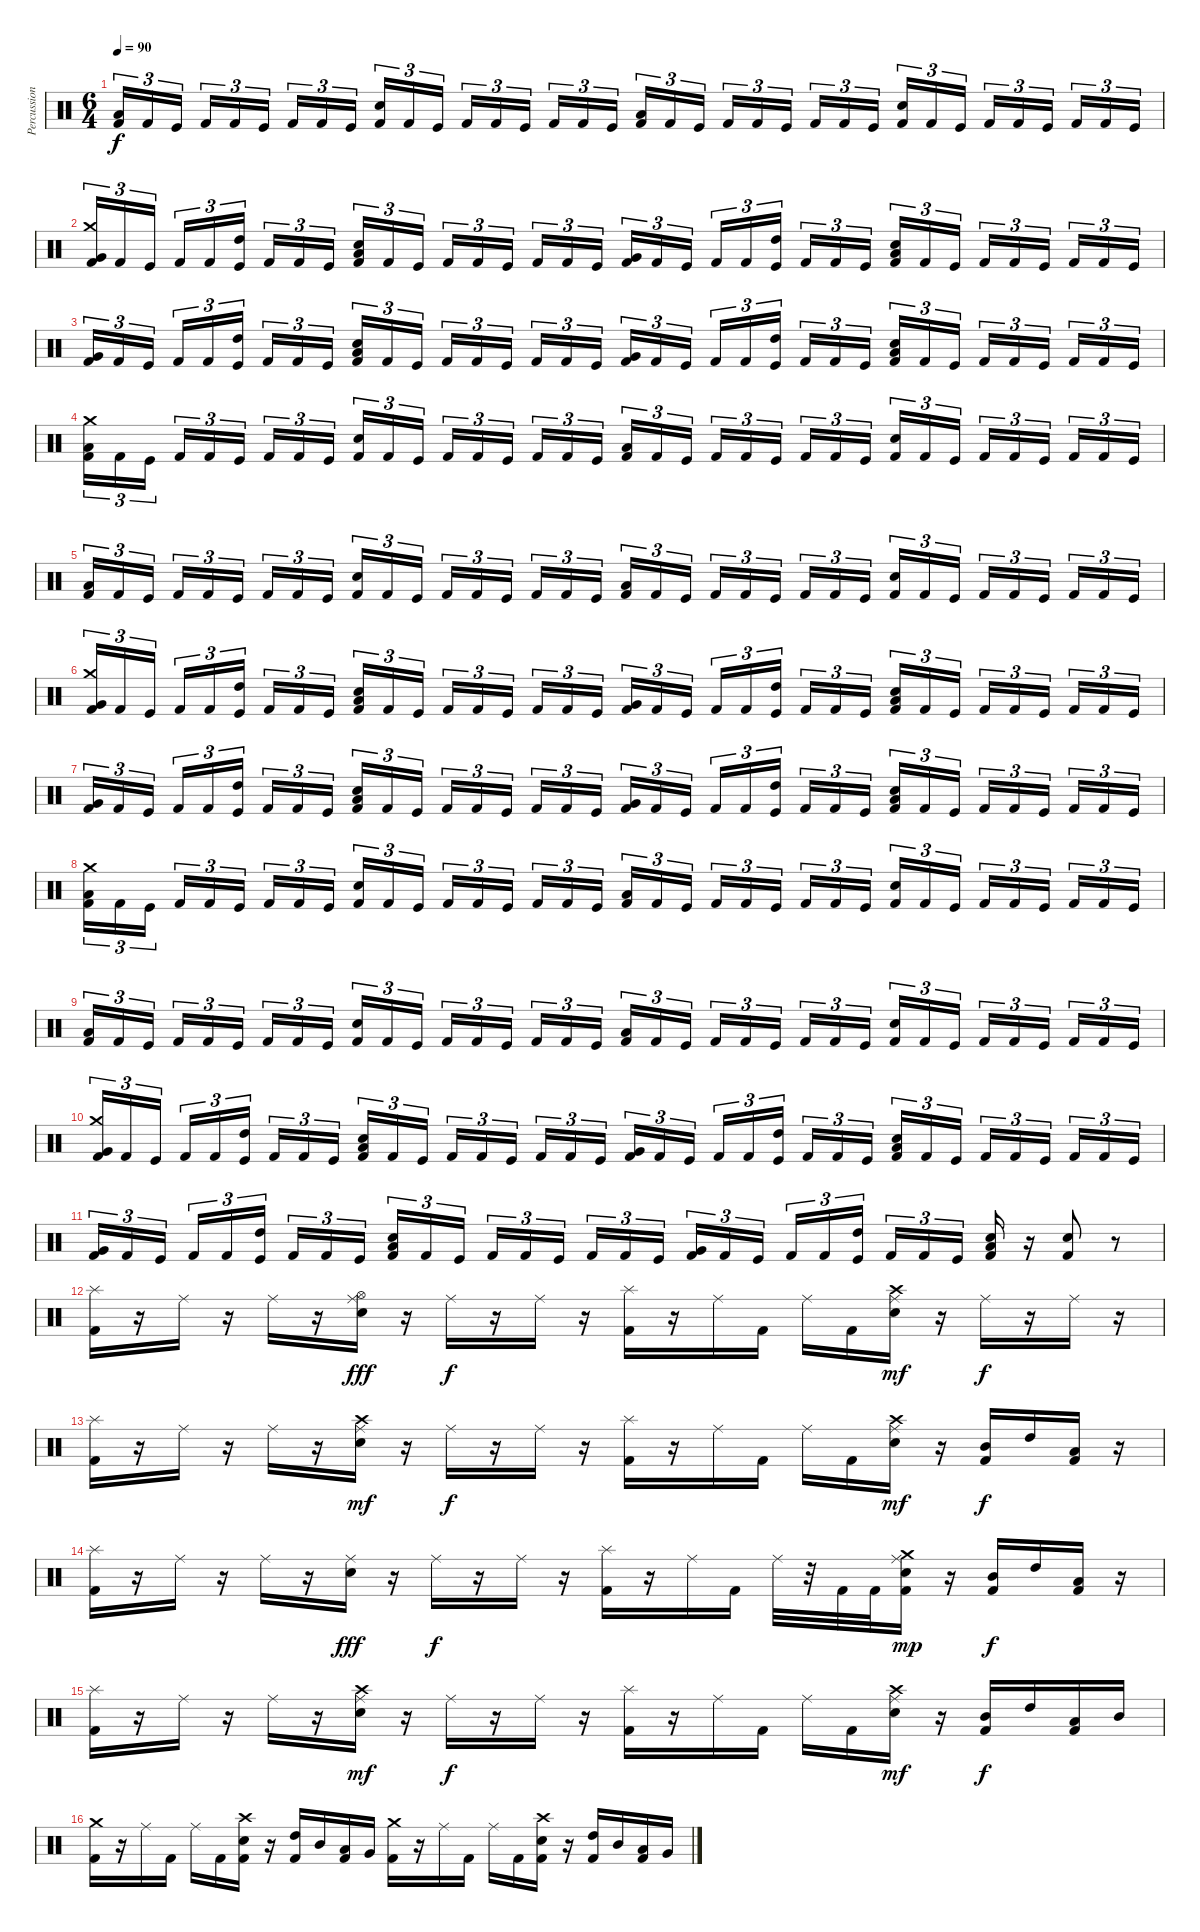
\track ("Percussion" "Percussion") {instrument percussion}
\staff {score}
\articulation defaults
\ts (6 4)
\tempo 90
\clef neutral
\ks c
("Low Floor Tom (hit)" "Kick (hit) 2").16{tu (3 2) dy f} "Kick (hit) 2".16{tu (3 2)} "Kick (hit)".16{tu (3 2)} "Kick (hit) 2".16{tu (3 2)} "Kick (hit) 2".16{tu (3 2)} "Kick (hit)".16{tu (3 2)} "Kick (hit) 2".16{tu (3 2)} "Kick (hit) 2".16{tu (3 2)} "Kick (hit)".16{tu (3 2)} ("Electric Snare (hit)" "Kick (hit) 2").16{tu (3 2)} "Kick (hit) 2".16{tu (3 2)} "Kick (hit)".16{tu (3 2)} "Kick (hit) 2".16{tu (3 2)} "Kick (hit) 2".16{tu (3 2)} "Kick (hit)".16{tu (3 2)} "Kick (hit) 2".16{tu (3 2)} "Kick (hit) 2".16{tu (3 2)} "Kick (hit)".16{tu (3 2)} ("Low Floor Tom (hit)" "Kick (hit) 2").16{tu (3 2)} "Kick (hit) 2".16{tu (3 2)} "Kick (hit)".16{tu (3 2)} "Kick (hit) 2".16{tu (3 2)} "Kick (hit) 2".16{tu (3 2)} "Kick (hit)".16{tu (3 2)} "Kick (hit) 2".16{tu (3 2)} "Kick (hit) 2".16{tu (3 2)} "Kick (hit)".16{tu (3 2)} ("Electric Snare (hit)" "Kick (hit) 2").16{tu (3 2)} "Kick (hit) 2".16{tu (3 2)} "Kick (hit)".16{tu (3 2)} "Kick (hit) 2".16{tu (3 2)} "Kick (hit) 2".16{tu (3 2)} "Kick (hit)".16{tu (3 2)} "Kick (hit) 2".16{tu (3 2)} "Kick (hit) 2".16{tu (3 2)} "Kick (hit)".16{tu (3 2)} |
("Crash medium (hit)" "Very Low Tom (hit)" "Kick (hit) 2").16{tu (3 2)} "Kick (hit) 2".16{tu (3 2)} "Kick (hit)".16{tu (3 2)} "Kick (hit) 2".16{tu (3 2)} "Kick (hit) 2".16{tu (3 2)} ("High Tom (hit)" "Kick (hit)").16{tu (3 2)} "Kick (hit) 2".16{tu (3 2)} "Kick (hit) 2".16{tu (3 2)} "Kick (hit)".16{tu (3 2)} ("Low Tom (hit)" "Electric Snare (hit)" "Kick (hit) 2").16{tu (3 2)} "Kick (hit) 2".16{tu (3 2)} "Kick (hit)".16{tu (3 2)} "Kick (hit) 2".16{tu (3 2)} "Kick (hit) 2".16{tu (3 2)} "Kick (hit)".16{tu (3 2)} "Kick (hit) 2".16{tu (3 2)} "Kick (hit) 2".16{tu (3 2)} "Kick (hit)".16{tu (3 2)} ("Very Low Tom (hit)" "Kick (hit) 2").16{tu (3 2)} "Kick (hit) 2".16{tu (3 2)} "Kick (hit)".16{tu (3 2)} "Kick (hit) 2".16{tu (3 2)} "Kick (hit) 2".16{tu (3 2)} ("High Tom (hit)" "Kick (hit)").16{tu (3 2)} "Kick (hit) 2".16{tu (3 2)} "Kick (hit) 2".16{tu (3 2)} "Kick (hit)".16{tu (3 2)} ("Low Tom (hit)" "Electric Snare (hit)" "Kick (hit) 2").16{tu (3 2)} "Kick (hit) 2".16{tu (3 2)} "Kick (hit)".16{tu (3 2)} "Kick (hit) 2".16{tu (3 2)} "Kick (hit) 2".16{tu (3 2)} "Kick (hit)".16{tu (3 2)} "Kick (hit) 2".16{tu (3 2)} "Kick (hit) 2".16{tu (3 2)} "Kick (hit)".16{tu (3 2)} |
("Very Low Tom (hit)" "Kick (hit) 2").16{tu (3 2)} "Kick (hit) 2".16{tu (3 2)} "Kick (hit)".16{tu (3 2)} "Kick (hit) 2".16{tu (3 2)} "Kick (hit) 2".16{tu (3 2)} ("High Tom (hit)" "Kick (hit)").16{tu (3 2)} "Kick (hit) 2".16{tu (3 2)} "Kick (hit) 2".16{tu (3 2)} "Kick (hit)".16{tu (3 2)} ("Low Tom (hit)" "Electric Snare (hit)" "Kick (hit) 2").16{tu (3 2)} "Kick (hit) 2".16{tu (3 2)} "Kick (hit)".16{tu (3 2)} "Kick (hit) 2".16{tu (3 2)} "Kick (hit) 2".16{tu (3 2)} "Kick (hit)".16{tu (3 2)} "Kick (hit) 2".16{tu (3 2)} "Kick (hit) 2".16{tu (3 2)} "Kick (hit)".16{tu (3 2)} ("Very Low Tom (hit)" "Kick (hit) 2").16{tu (3 2)} "Kick (hit) 2".16{tu (3 2)} "Kick (hit)".16{tu (3 2)} "Kick (hit) 2".16{tu (3 2)} "Kick (hit) 2".16{tu (3 2)} ("High Tom (hit)" "Kick (hit)").16{tu (3 2)} "Kick (hit) 2".16{tu (3 2)} "Kick (hit) 2".16{tu (3 2)} "Kick (hit)".16{tu (3 2)} ("Low Tom (hit)" "Electric Snare (hit)" "Kick (hit) 2").16{tu (3 2)} "Kick (hit) 2".16{tu (3 2)} "Kick (hit)".16{tu (3 2)} "Kick (hit) 2".16{tu (3 2)} "Kick (hit) 2".16{tu (3 2)} "Kick (hit)".16{tu (3 2)} "Kick (hit) 2".16{tu (3 2)} "Kick (hit) 2".16{tu (3 2)} "Kick (hit)".16{tu (3 2)} |
("Crash medium (hit)" "Low Floor Tom (hit)" "Kick (hit) 2").16{tu (3 2)} "Kick (hit) 2".16{tu (3 2)} "Kick (hit)".16{tu (3 2)} "Kick (hit) 2".16{tu (3 2)} "Kick (hit) 2".16{tu (3 2)} "Kick (hit)".16{tu (3 2)} "Kick (hit) 2".16{tu (3 2)} "Kick (hit) 2".16{tu (3 2)} "Kick (hit)".16{tu (3 2)} ("Electric Snare (hit)" "Kick (hit) 2").16{tu (3 2)} "Kick (hit) 2".16{tu (3 2)} "Kick (hit)".16{tu (3 2)} "Kick (hit) 2".16{tu (3 2)} "Kick (hit) 2".16{tu (3 2)} "Kick (hit)".16{tu (3 2)} "Kick (hit) 2".16{tu (3 2)} "Kick (hit) 2".16{tu (3 2)} "Kick (hit)".16{tu (3 2)} ("Low Floor Tom (hit)" "Kick (hit) 2").16{tu (3 2)} "Kick (hit) 2".16{tu (3 2)} "Kick (hit)".16{tu (3 2)} "Kick (hit) 2".16{tu (3 2)} "Kick (hit) 2".16{tu (3 2)} "Kick (hit)".16{tu (3 2)} "Kick (hit) 2".16{tu (3 2)} "Kick (hit) 2".16{tu (3 2)} "Kick (hit)".16{tu (3 2)} ("Electric Snare (hit)" "Kick (hit) 2").16{tu (3 2)} "Kick (hit) 2".16{tu (3 2)} "Kick (hit)".16{tu (3 2)} "Kick (hit) 2".16{tu (3 2)} "Kick (hit) 2".16{tu (3 2)} "Kick (hit)".16{tu (3 2)} "Kick (hit) 2".16{tu (3 2)} "Kick (hit) 2".16{tu (3 2)} "Kick (hit)".16{tu (3 2)} |
("Low Floor Tom (hit)" "Kick (hit) 2").16{tu (3 2)} "Kick (hit) 2".16{tu (3 2)} "Kick (hit)".16{tu (3 2)} "Kick (hit) 2".16{tu (3 2)} "Kick (hit) 2".16{tu (3 2)} "Kick (hit)".16{tu (3 2)} "Kick (hit) 2".16{tu (3 2)} "Kick (hit) 2".16{tu (3 2)} "Kick (hit)".16{tu (3 2)} ("Electric Snare (hit)" "Kick (hit) 2").16{tu (3 2)} "Kick (hit) 2".16{tu (3 2)} "Kick (hit)".16{tu (3 2)} "Kick (hit) 2".16{tu (3 2)} "Kick (hit) 2".16{tu (3 2)} "Kick (hit)".16{tu (3 2)} "Kick (hit) 2".16{tu (3 2)} "Kick (hit) 2".16{tu (3 2)} "Kick (hit)".16{tu (3 2)} ("Low Floor Tom (hit)" "Kick (hit) 2").16{tu (3 2)} "Kick (hit) 2".16{tu (3 2)} "Kick (hit)".16{tu (3 2)} "Kick (hit) 2".16{tu (3 2)} "Kick (hit) 2".16{tu (3 2)} "Kick (hit)".16{tu (3 2)} "Kick (hit) 2".16{tu (3 2)} "Kick (hit) 2".16{tu (3 2)} "Kick (hit)".16{tu (3 2)} ("Electric Snare (hit)" "Kick (hit) 2").16{tu (3 2)} "Kick (hit) 2".16{tu (3 2)} "Kick (hit)".16{tu (3 2)} "Kick (hit) 2".16{tu (3 2)} "Kick (hit) 2".16{tu (3 2)} "Kick (hit)".16{tu (3 2)} "Kick (hit) 2".16{tu (3 2)} "Kick (hit) 2".16{tu (3 2)} "Kick (hit)".16{tu (3 2)} |
("Crash medium (hit)" "Very Low Tom (hit)" "Kick (hit) 2").16{tu (3 2)} "Kick (hit) 2".16{tu (3 2)} "Kick (hit)".16{tu (3 2)} "Kick (hit) 2".16{tu (3 2)} "Kick (hit) 2".16{tu (3 2)} ("High Tom (hit)" "Kick (hit)").16{tu (3 2)} "Kick (hit) 2".16{tu (3 2)} "Kick (hit) 2".16{tu (3 2)} "Kick (hit)".16{tu (3 2)} ("Low Tom (hit)" "Electric Snare (hit)" "Kick (hit) 2").16{tu (3 2)} "Kick (hit) 2".16{tu (3 2)} "Kick (hit)".16{tu (3 2)} "Kick (hit) 2".16{tu (3 2)} "Kick (hit) 2".16{tu (3 2)} "Kick (hit)".16{tu (3 2)} "Kick (hit) 2".16{tu (3 2)} "Kick (hit) 2".16{tu (3 2)} "Kick (hit)".16{tu (3 2)} ("Very Low Tom (hit)" "Kick (hit) 2").16{tu (3 2)} "Kick (hit) 2".16{tu (3 2)} "Kick (hit)".16{tu (3 2)} "Kick (hit) 2".16{tu (3 2)} "Kick (hit) 2".16{tu (3 2)} ("High Tom (hit)" "Kick (hit)").16{tu (3 2)} "Kick (hit) 2".16{tu (3 2)} "Kick (hit) 2".16{tu (3 2)} "Kick (hit)".16{tu (3 2)} ("Low Tom (hit)" "Electric Snare (hit)" "Kick (hit) 2").16{tu (3 2)} "Kick (hit) 2".16{tu (3 2)} "Kick (hit)".16{tu (3 2)} "Kick (hit) 2".16{tu (3 2)} "Kick (hit) 2".16{tu (3 2)} "Kick (hit)".16{tu (3 2)} "Kick (hit) 2".16{tu (3 2)} "Kick (hit) 2".16{tu (3 2)} "Kick (hit)".16{tu (3 2)} |
("Very Low Tom (hit)" "Kick (hit) 2").16{tu (3 2)} "Kick (hit) 2".16{tu (3 2)} "Kick (hit)".16{tu (3 2)} "Kick (hit) 2".16{tu (3 2)} "Kick (hit) 2".16{tu (3 2)} ("High Tom (hit)" "Kick (hit)").16{tu (3 2)} "Kick (hit) 2".16{tu (3 2)} "Kick (hit) 2".16{tu (3 2)} "Kick (hit)".16{tu (3 2)} ("Low Tom (hit)" "Electric Snare (hit)" "Kick (hit) 2").16{tu (3 2)} "Kick (hit) 2".16{tu (3 2)} "Kick (hit)".16{tu (3 2)} "Kick (hit) 2".16{tu (3 2)} "Kick (hit) 2".16{tu (3 2)} "Kick (hit)".16{tu (3 2)} "Kick (hit) 2".16{tu (3 2)} "Kick (hit) 2".16{tu (3 2)} "Kick (hit)".16{tu (3 2)} ("Very Low Tom (hit)" "Kick (hit) 2").16{tu (3 2)} "Kick (hit) 2".16{tu (3 2)} "Kick (hit)".16{tu (3 2)} "Kick (hit) 2".16{tu (3 2)} "Kick (hit) 2".16{tu (3 2)} ("High Tom (hit)" "Kick (hit)").16{tu (3 2)} "Kick (hit) 2".16{tu (3 2)} "Kick (hit) 2".16{tu (3 2)} "Kick (hit)".16{tu (3 2)} ("Low Tom (hit)" "Electric Snare (hit)" "Kick (hit) 2").16{tu (3 2)} "Kick (hit) 2".16{tu (3 2)} "Kick (hit)".16{tu (3 2)} "Kick (hit) 2".16{tu (3 2)} "Kick (hit) 2".16{tu (3 2)} "Kick (hit)".16{tu (3 2)} "Kick (hit) 2".16{tu (3 2)} "Kick (hit) 2".16{tu (3 2)} "Kick (hit)".16{tu (3 2)} |
("Crash medium (hit)" "Low Floor Tom (hit)" "Kick (hit) 2").16{tu (3 2)} "Kick (hit) 2".16{tu (3 2)} "Kick (hit)".16{tu (3 2)} "Kick (hit) 2".16{tu (3 2)} "Kick (hit) 2".16{tu (3 2)} "Kick (hit)".16{tu (3 2)} "Kick (hit) 2".16{tu (3 2)} "Kick (hit) 2".16{tu (3 2)} "Kick (hit)".16{tu (3 2)} ("Electric Snare (hit)" "Kick (hit) 2").16{tu (3 2)} "Kick (hit) 2".16{tu (3 2)} "Kick (hit)".16{tu (3 2)} "Kick (hit) 2".16{tu (3 2)} "Kick (hit) 2".16{tu (3 2)} "Kick (hit)".16{tu (3 2)} "Kick (hit) 2".16{tu (3 2)} "Kick (hit) 2".16{tu (3 2)} "Kick (hit)".16{tu (3 2)} ("Low Floor Tom (hit)" "Kick (hit) 2").16{tu (3 2)} "Kick (hit) 2".16{tu (3 2)} "Kick (hit)".16{tu (3 2)} "Kick (hit) 2".16{tu (3 2)} "Kick (hit) 2".16{tu (3 2)} "Kick (hit)".16{tu (3 2)} "Kick (hit) 2".16{tu (3 2)} "Kick (hit) 2".16{tu (3 2)} "Kick (hit)".16{tu (3 2)} ("Electric Snare (hit)" "Kick (hit) 2").16{tu (3 2)} "Kick (hit) 2".16{tu (3 2)} "Kick (hit)".16{tu (3 2)} "Kick (hit) 2".16{tu (3 2)} "Kick (hit) 2".16{tu (3 2)} "Kick (hit)".16{tu (3 2)} "Kick (hit) 2".16{tu (3 2)} "Kick (hit) 2".16{tu (3 2)} "Kick (hit)".16{tu (3 2)} |
("Low Floor Tom (hit)" "Kick (hit) 2").16{tu (3 2)} "Kick (hit) 2".16{tu (3 2)} "Kick (hit)".16{tu (3 2)} "Kick (hit) 2".16{tu (3 2)} "Kick (hit) 2".16{tu (3 2)} "Kick (hit)".16{tu (3 2)} "Kick (hit) 2".16{tu (3 2)} "Kick (hit) 2".16{tu (3 2)} "Kick (hit)".16{tu (3 2)} ("Electric Snare (hit)" "Kick (hit) 2").16{tu (3 2)} "Kick (hit) 2".16{tu (3 2)} "Kick (hit)".16{tu (3 2)} "Kick (hit) 2".16{tu (3 2)} "Kick (hit) 2".16{tu (3 2)} "Kick (hit)".16{tu (3 2)} "Kick (hit) 2".16{tu (3 2)} "Kick (hit) 2".16{tu (3 2)} "Kick (hit)".16{tu (3 2)} ("Low Floor Tom (hit)" "Kick (hit) 2").16{tu (3 2)} "Kick (hit) 2".16{tu (3 2)} "Kick (hit)".16{tu (3 2)} "Kick (hit) 2".16{tu (3 2)} "Kick (hit) 2".16{tu (3 2)} "Kick (hit)".16{tu (3 2)} "Kick (hit) 2".16{tu (3 2)} "Kick (hit) 2".16{tu (3 2)} "Kick (hit)".16{tu (3 2)} ("Electric Snare (hit)" "Kick (hit) 2").16{tu (3 2)} "Kick (hit) 2".16{tu (3 2)} "Kick (hit)".16{tu (3 2)} "Kick (hit) 2".16{tu (3 2)} "Kick (hit) 2".16{tu (3 2)} "Kick (hit)".16{tu (3 2)} "Kick (hit) 2".16{tu (3 2)} "Kick (hit) 2".16{tu (3 2)} "Kick (hit)".16{tu (3 2)} |
("Crash medium (hit)" "Very Low Tom (hit)" "Kick (hit) 2").16{tu (3 2)} "Kick (hit) 2".16{tu (3 2)} "Kick (hit)".16{tu (3 2)} "Kick (hit) 2".16{tu (3 2)} "Kick (hit) 2".16{tu (3 2)} ("High Tom (hit)" "Kick (hit)").16{tu (3 2)} "Kick (hit) 2".16{tu (3 2)} "Kick (hit) 2".16{tu (3 2)} "Kick (hit)".16{tu (3 2)} ("Low Tom (hit)" "Electric Snare (hit)" "Kick (hit) 2").16{tu (3 2)} "Kick (hit) 2".16{tu (3 2)} "Kick (hit)".16{tu (3 2)} "Kick (hit) 2".16{tu (3 2)} "Kick (hit) 2".16{tu (3 2)} "Kick (hit)".16{tu (3 2)} "Kick (hit) 2".16{tu (3 2)} "Kick (hit) 2".16{tu (3 2)} "Kick (hit)".16{tu (3 2)} ("Very Low Tom (hit)" "Kick (hit) 2").16{tu (3 2)} "Kick (hit) 2".16{tu (3 2)} "Kick (hit)".16{tu (3 2)} "Kick (hit) 2".16{tu (3 2)} "Kick (hit) 2".16{tu (3 2)} ("High Tom (hit)" "Kick (hit)").16{tu (3 2)} "Kick (hit) 2".16{tu (3 2)} "Kick (hit) 2".16{tu (3 2)} "Kick (hit)".16{tu (3 2)} ("Low Tom (hit)" "Electric Snare (hit)" "Kick (hit) 2").16{tu (3 2)} "Kick (hit) 2".16{tu (3 2)} "Kick (hit)".16{tu (3 2)} "Kick (hit) 2".16{tu (3 2)} "Kick (hit) 2".16{tu (3 2)} "Kick (hit)".16{tu (3 2)} "Kick (hit) 2".16{tu (3 2)} "Kick (hit) 2".16{tu (3 2)} "Kick (hit)".16{tu (3 2)} |
("Very Low Tom (hit)" "Kick (hit) 2").16{tu (3 2)} "Kick (hit) 2".16{tu (3 2)} "Kick (hit)".16{tu (3 2)} "Kick (hit) 2".16{tu (3 2)} "Kick (hit) 2".16{tu (3 2)} ("High Tom (hit)" "Kick (hit)").16{tu (3 2)} "Kick (hit) 2".16{tu (3 2)} "Kick (hit) 2".16{tu (3 2)} "Kick (hit)".16{tu (3 2)} ("Low Tom (hit)" "Electric Snare (hit)" "Kick (hit) 2").16{tu (3 2)} "Kick (hit) 2".16{tu (3 2)} "Kick (hit)".16{tu (3 2)} "Kick (hit) 2".16{tu (3 2)} "Kick (hit) 2".16{tu (3 2)} "Kick (hit)".16{tu (3 2)} "Kick (hit) 2".16{tu (3 2)} "Kick (hit) 2".16{tu (3 2)} "Kick (hit)".16{tu (3 2)} ("Very Low Tom (hit)" "Kick (hit) 2").16{tu (3 2)} "Kick (hit) 2".16{tu (3 2)} "Kick (hit)".16{tu (3 2)} "Kick (hit) 2".16{tu (3 2)} "Kick (hit) 2".16{tu (3 2)} ("High Tom (hit)" "Kick (hit)").16{tu (3 2)} "Kick (hit) 2".16{tu (3 2)} "Kick (hit) 2".16{tu (3 2)} "Kick (hit)".16{tu (3 2)} ("Low Tom (hit)" "Electric Snare (hit)" "Kick (hit) 2").16 r.16 ("Electric Snare (hit)" "Kick (hit) 2").8 r.8 |
("Splash (hit)" "Kick (hit) 2").16 r.16 "Ride (middle)".16 r.16 "Ride (middle)".16 r.16 ("Ride (middle)" "Hi-Hat (open)" "Electric Snare (hit)").16{dy fff} r.16 "Ride (middle)".16{dy f} r.16 "Ride (middle)".16 r.16 ("Splash (hit)" "Kick (hit) 2").16 r.16 "Ride (middle)".16 "Kick (hit) 2".16 "Ride (middle)".16 "Kick (hit) 2".16 ("Ride (middle)" "Crash high (hit)" "Electric Snare (hit)").16{dy mf} r.16 "Ride (middle)".16{dy f} r.16 "Ride (middle)".16 r.16 |
("Splash (hit)" "Kick (hit) 2").16 r.16 "Ride (middle)".16 r.16 "Ride (middle)".16 r.16 ("Ride (middle)" "Crash high (hit)" "Electric Snare (hit)").16{dy mf} r.16 "Ride (middle)".16{dy f} r.16 "Ride (middle)".16 r.16 ("Splash (hit)" "Kick (hit) 2").16 r.16 "Ride (middle)".16 "Kick (hit) 2".16 "Ride (middle)".16 "Kick (hit) 2".16 ("Ride (middle)" "Crash high (hit)" "Electric Snare (hit)").16{dy mf} r.16 ("Mid Tom (hit)" "Kick (hit) 2").16{dy f} "High Tom (hit)".16 ("Low Tom (hit)" "Kick (hit) 2").16 r.16 |
("Splash (hit)" "Kick (hit) 2").16 r.16 "Ride (middle)".16 r.16 "Ride (middle)".16 r.16 ("Ride (middle)" "Electric Snare (hit)").16{dy fff} r.16 "Ride (middle)".16{dy f} r.16 "Ride (middle)".16 r.16 ("Splash (hit)" "Kick (hit) 2").16 r.16 "Ride (middle)".16 "Kick (hit) 2".16 "Ride (middle)".32 r.32 "Kick (hit) 2".32 "Kick (hit) 2".32 ("Ride (middle)" "Crash medium (hit)" "Electric Snare (hit)" "Kick (hit) 2").16{dy mp} r.16 ("Mid Tom (hit)" "Kick (hit) 2").16{dy f} "High Tom (hit)".16 ("Low Tom (hit)" "Kick (hit) 2").16 r.16 |
("Splash (hit)" "Kick (hit) 2").16 r.16 "Ride (middle)".16 r.16 "Ride (middle)".16 r.16 ("Ride (middle)" "Crash high (hit)" "Electric Snare (hit)").16{dy mf} r.16 "Ride (middle)".16{dy f} r.16 "Ride (middle)".16 r.16 ("Splash (hit)" "Kick (hit) 2").16 r.16 "Ride (middle)".16 "Kick (hit) 2".16 "Ride (middle)".16 "Kick (hit) 2".16 ("Ride (middle)" "Crash high (hit)" "Electric Snare (hit)").16{dy mf} r.16 ("Mid Tom (hit)" "Kick (hit) 2").16{dy f} "High Tom (hit)".16 ("Low Tom (hit)" "Kick (hit) 2").16 "Mid Tom (hit)".16 |
("Crash medium (hit)" "Kick (hit) 2").16 r.16 "Ride (middle)".16 "Kick (hit) 2".16 "Ride (middle)".16 "Kick (hit) 2".16 ("Crash high (hit)" "Electric Snare (hit)" "Kick (hit) 2").16 r.16 ("High Tom (hit)" "Kick (hit) 2").16 "Mid Tom (hit)".16 ("Low Tom (hit)" "Kick (hit) 2").16 "Very Low Tom (hit)".16 ("Crash medium (hit)" "Kick (hit) 2").16 r.16 "Ride (middle)".16 "Kick (hit) 2".16 "Ride (middle)".16 "Kick (hit) 2".16 ("Crash high (hit)" "Electric Snare (hit)" "Kick (hit) 2").16 r.16 ("High Tom (hit)" "Kick (hit) 2").16 "Mid Tom (hit)".16 ("Low Tom (hit)" "Kick (hit) 2").16 "Very Low Tom (hit)".16
